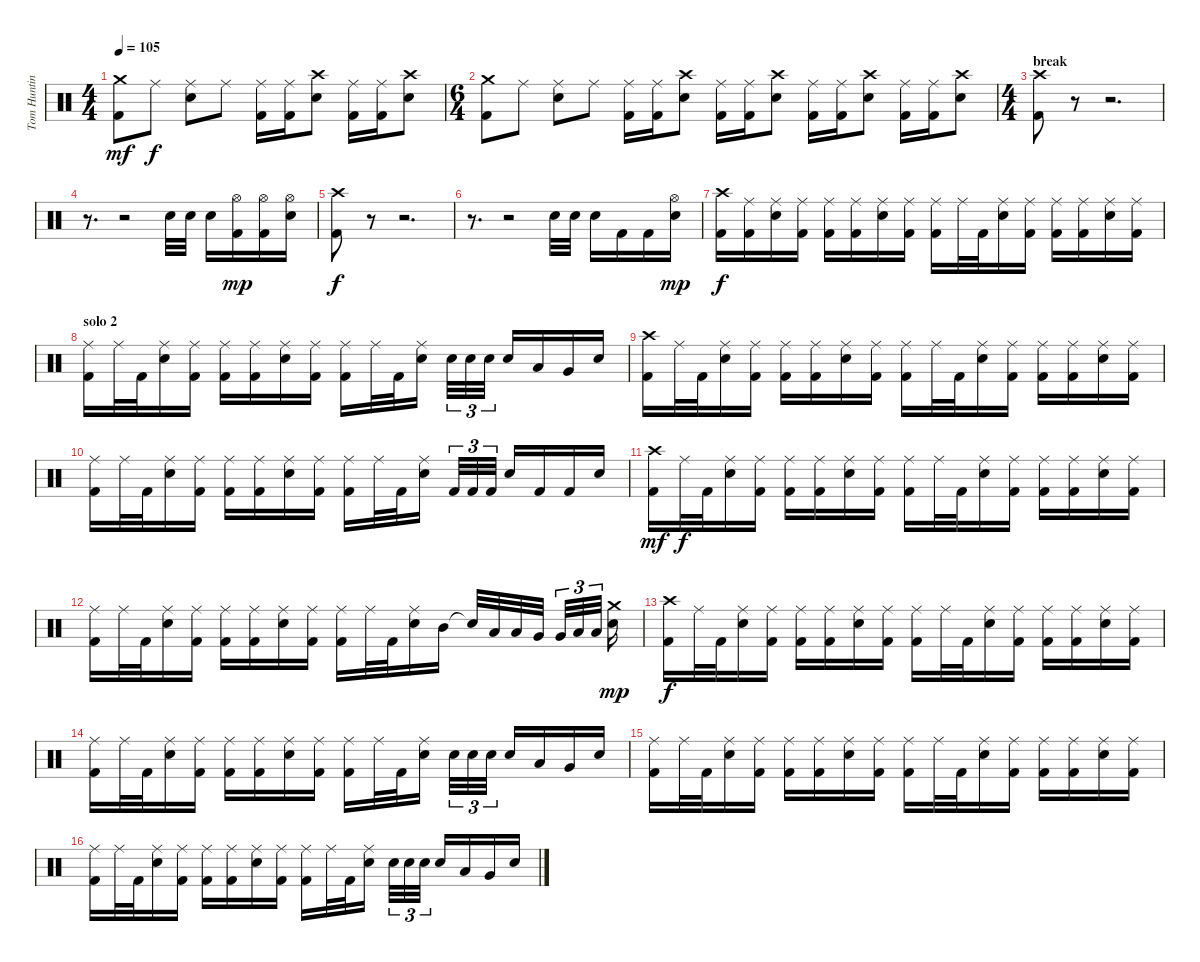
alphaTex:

\track ("Tom Hunting" "Tom Huntin") {instrument percussion}
\staff {score}
\articulation defaults
\ts (4 4)
\tempo 105
\clef neutral
\ks c
("Kick (hit) 2" "Crash medium (hit)").8{dy mf} "Ride (middle)".8{dy f} ("Ride (middle)" "Snare (hit) 2").8 "Ride (middle)".8 ("Kick (hit) 2" "Ride (middle)").16 ("Kick (hit) 2" "Ride (middle)").16 ("Crash high (hit)" "Snare (hit) 2").8 ("Kick (hit) 2" "Ride (middle)").16 ("Kick (hit) 2" "Ride (middle)").16 ("Crash high (hit)" "Snare (hit) 2").8 |
\ts (6 4)
("Kick (hit) 2" "Crash medium (hit)").8 "Ride (middle)".8 ("Ride (middle)" "Snare (hit) 2").8 "Ride (middle)".8 ("Kick (hit) 2" "Ride (middle)").16 ("Kick (hit) 2" "Ride (middle)").16 ("Crash high (hit)" "Snare (hit) 2").8 ("Kick (hit) 2" "Ride (middle)").16 ("Kick (hit) 2" "Ride (middle)").16 ("Crash high (hit)" "Snare (hit) 2").8 ("Kick (hit) 2" "Ride (middle)").16 ("Kick (hit) 2" "Ride (middle)").16 ("Crash high (hit)" "Snare (hit) 2").8 ("Kick (hit) 2" "Ride (middle)").16 ("Kick (hit) 2" "Ride (middle)").16 ("Crash high (hit)" "Snare (hit) 2").8 |
\ts (4 4)
\section ("" "break")
("Kick (hit) 2" "Crash high (hit)").8 r.8 r.2{d} |
r.8{d} r.2 "Snare (hit) 2".32 "Snare (hit) 2".32 "Snare (hit) 2".16 ("Kick (hit) 2" "Hi-Hat (open)").16{dy mp} ("Kick (hit) 2" "Hi-Hat (open)").16 ("Hi-Hat (open)" "Snare (hit) 2").16 |
("Kick (hit) 2" "Crash high (hit)").8{dy f} r.8 r.2{d} |
r.8{d} r.2 "Snare (hit) 2".32 "Snare (hit) 2".32 "Snare (hit) 2".16 "Kick (hit) 2".16 "Kick (hit) 2".16 ("Hi-Hat (open)" "Snare (hit) 2").16{dy mp} |
("Kick (hit) 2" "Crash high (hit)").16{dy f} ("Kick (hit) 2" "Ride (middle)").16 ("Ride (middle)" "Snare (hit) 2").16 ("Kick (hit) 2" "Ride (middle)").16 ("Kick (hit) 2" "Ride (middle)").16 ("Kick (hit) 2" "Ride (middle)").16 ("Ride (middle)" "Snare (hit) 2").16 ("Kick (hit) 2" "Ride (middle)").16 ("Kick (hit) 2" "Ride (middle)").16 "Ride (middle)".32 "Kick (hit) 2".32 ("Ride (middle)" "Snare (hit) 2").16 ("Kick (hit) 2" "Ride (middle)").16 ("Kick (hit) 2" "Ride (middle)").16 ("Kick (hit) 2" "Ride (middle)").16 ("Ride (middle)" "Snare (hit) 2").16 ("Kick (hit) 2" "Ride (middle)").16 |
\section ("" "solo 2")
("Kick (hit) 2" "Ride (middle)").16 "Ride (middle)".32 "Kick (hit) 2".32 ("Ride (middle)" "Snare (hit) 2").16 ("Kick (hit) 2" "Ride (middle)").16 ("Kick (hit) 2" "Ride (middle)").16 ("Kick (hit) 2" "Ride (middle)").16 ("Ride (middle)" "Snare (hit) 2").16 ("Kick (hit) 2" "Ride (middle)").16 ("Kick (hit) 2" "Ride (middle)").16 "Ride (middle)".32 "Kick (hit) 2".32 ("Ride (middle)" "Snare (hit) 2").16 "Snare (hit) 2".32{tu (3 2)} "Snare (hit) 2".32{tu (3 2)} "Snare (hit) 2".32{tu (3 2)} "Snare (hit) 2".16 "Low Tom (hit)".16 "Very Low Tom (hit)".16 "Snare (hit) 2".16 |
("Kick (hit) 2" "Crash high (hit)").16 "Ride (middle)".32 "Kick (hit) 2".32 ("Ride (middle)" "Snare (hit) 2").16 ("Kick (hit) 2" "Ride (middle)").16 ("Kick (hit) 2" "Ride (middle)").16 ("Kick (hit) 2" "Ride (middle)").16 ("Ride (middle)" "Snare (hit) 2").16 ("Kick (hit) 2" "Ride (middle)").16 ("Kick (hit) 2" "Ride (middle)").16 "Ride (middle)".32 "Kick (hit) 2".32 ("Ride (middle)" "Snare (hit) 2").16 ("Kick (hit) 2" "Ride (middle)").16 ("Kick (hit) 2" "Ride (middle)").16 ("Kick (hit) 2" "Ride (middle)").16 ("Ride (middle)" "Snare (hit) 2").16 ("Kick (hit) 2" "Ride (middle)").16 |
("Kick (hit) 2" "Ride (middle)").16 "Ride (middle)".32 "Kick (hit) 2".32 ("Ride (middle)" "Snare (hit) 2").16 ("Kick (hit) 2" "Ride (middle)").16 ("Kick (hit) 2" "Ride (middle)").16 ("Kick (hit) 2" "Ride (middle)").16 ("Ride (middle)" "Snare (hit) 2").16 ("Kick (hit) 2" "Ride (middle)").16 ("Kick (hit) 2" "Ride (middle)").16 "Ride (middle)".32 "Kick (hit) 2".32 ("Ride (middle)" "Snare (hit) 2").16 "Kick (hit) 2".32{tu (3 2)} "Kick (hit) 2".32{tu (3 2)} "Kick (hit) 2".32{tu (3 2)} "Snare (hit) 2".16 "Kick (hit) 2".16 "Kick (hit) 2".16 "Snare (hit) 2".16 |
("Kick (hit) 2" "Crash high (hit)").16{dy mf} "Ride (middle)".32{dy f} "Kick (hit) 2".32 ("Ride (middle)" "Snare (hit) 2").16 ("Kick (hit) 2" "Ride (middle)").16 ("Kick (hit) 2" "Ride (middle)").16 ("Kick (hit) 2" "Ride (middle)").16 ("Ride (middle)" "Snare (hit) 2").16 ("Kick (hit) 2" "Ride (middle)").16 ("Kick (hit) 2" "Ride (middle)").16 "Ride (middle)".32 "Kick (hit) 2".32 ("Ride (middle)" "Snare (hit) 2").16 ("Kick (hit) 2" "Ride (middle)").16 ("Kick (hit) 2" "Ride (middle)").16 ("Kick (hit) 2" "Ride (middle)").16 ("Ride (middle)" "Snare (hit) 2").16 ("Kick (hit) 2" "Ride (middle)").16 |
("Kick (hit) 2" "Ride (middle)").16 "Ride (middle)".32 "Kick (hit) 2".32 ("Ride (middle)" "Snare (hit) 2").16 ("Kick (hit) 2" "Ride (middle)").16 ("Kick (hit) 2" "Ride (middle)").16 ("Kick (hit) 2" "Ride (middle)").16 ("Ride (middle)" "Snare (hit) 2").16 ("Kick (hit) 2" "Ride (middle)").16 ("Kick (hit) 2" "Ride (middle)").16 "Ride (middle)".32 "Kick (hit) 2".32 ("Ride (middle)" "Snare (hit) 2").16 "Mid Tom (hit)".16 "Snare (hit)"{t}.32 "Low Tom (hit)".32 "Low Tom (hit)".32 "Very Low Tom (hit)".32 "Very Low Tom (hit)".32{tu (3 2)} "Low Floor Tom (hit)".32{tu (3 2)} "Low Floor Tom (hit)".32{tu (3 2)} ("Crash medium (hit)" "Snare (hit) 2").16{dy mp} |
("Kick (hit) 2" "Crash high (hit)").16{dy f} "Ride (middle)".32 "Kick (hit) 2".32 ("Ride (middle)" "Snare (hit) 2").16 ("Kick (hit) 2" "Ride (middle)").16 ("Kick (hit) 2" "Ride (middle)").16 ("Kick (hit) 2" "Ride (middle)").16 ("Ride (middle)" "Snare (hit) 2").16 ("Kick (hit) 2" "Ride (middle)").16 ("Kick (hit) 2" "Ride (middle)").16 "Ride (middle)".32 "Kick (hit) 2".32 ("Ride (middle)" "Snare (hit) 2").16 ("Kick (hit) 2" "Ride (middle)").16 ("Kick (hit) 2" "Ride (middle)").16 ("Kick (hit) 2" "Ride (middle)").16 ("Ride (middle)" "Snare (hit) 2").16 ("Kick (hit) 2" "Ride (middle)").16 |
("Kick (hit) 2" "Ride (middle)").16 "Ride (middle)".32 "Kick (hit) 2".32 ("Ride (middle)" "Snare (hit) 2").16 ("Kick (hit) 2" "Ride (middle)").16 ("Kick (hit) 2" "Ride (middle)").16 ("Kick (hit) 2" "Ride (middle)").16 ("Ride (middle)" "Snare (hit) 2").16 ("Kick (hit) 2" "Ride (middle)").16 ("Kick (hit) 2" "Ride (middle)").16 "Ride (middle)".32 "Kick (hit) 2".32 ("Ride (middle)" "Snare (hit) 2").16 "Snare (hit) 2".32{tu (3 2)} "Snare (hit) 2".32{tu (3 2)} "Snare (hit) 2".32{tu (3 2)} "Snare (hit) 2".16 "Low Tom (hit)".16 "Very Low Tom (hit)".16 "Snare (hit) 2".16 |
("Kick (hit) 2" "Ride (middle)").16 "Ride (middle)".32 "Kick (hit) 2".32 ("Ride (middle)" "Snare (hit) 2").16 ("Kick (hit) 2" "Ride (middle)").16 ("Kick (hit) 2" "Ride (middle)").16 ("Kick (hit) 2" "Ride (middle)").16 ("Ride (middle)" "Snare (hit) 2").16 ("Kick (hit) 2" "Ride (middle)").16 ("Kick (hit) 2" "Ride (middle)").16 "Ride (middle)".32 "Kick (hit) 2".32 ("Ride (middle)" "Snare (hit) 2").16 ("Kick (hit) 2" "Ride (middle)").16 ("Kick (hit) 2" "Ride (middle)").16 ("Kick (hit) 2" "Ride (middle)").16 ("Ride (middle)" "Snare (hit) 2").16 ("Kick (hit) 2" "Ride (middle)").16 |
("Kick (hit) 2" "Ride (middle)").16 "Ride (middle)".32 "Kick (hit) 2".32 ("Ride (middle)" "Snare (hit) 2").16 ("Kick (hit) 2" "Ride (middle)").16 ("Kick (hit) 2" "Ride (middle)").16 ("Kick (hit) 2" "Ride (middle)").16 ("Ride (middle)" "Snare (hit) 2").16 ("Kick (hit) 2" "Ride (middle)").16 ("Kick (hit) 2" "Ride (middle)").16 "Ride (middle)".32 "Kick (hit) 2".32 ("Ride (middle)" "Snare (hit) 2").16 "Snare (hit) 2".32{tu (3 2)} "Snare (hit) 2".32{tu (3 2)} "Snare (hit) 2".32{tu (3 2)} "Snare (hit) 2".16 "Low Tom (hit)".16 "Very Low Tom (hit)".16 "Snare (hit) 2".16
